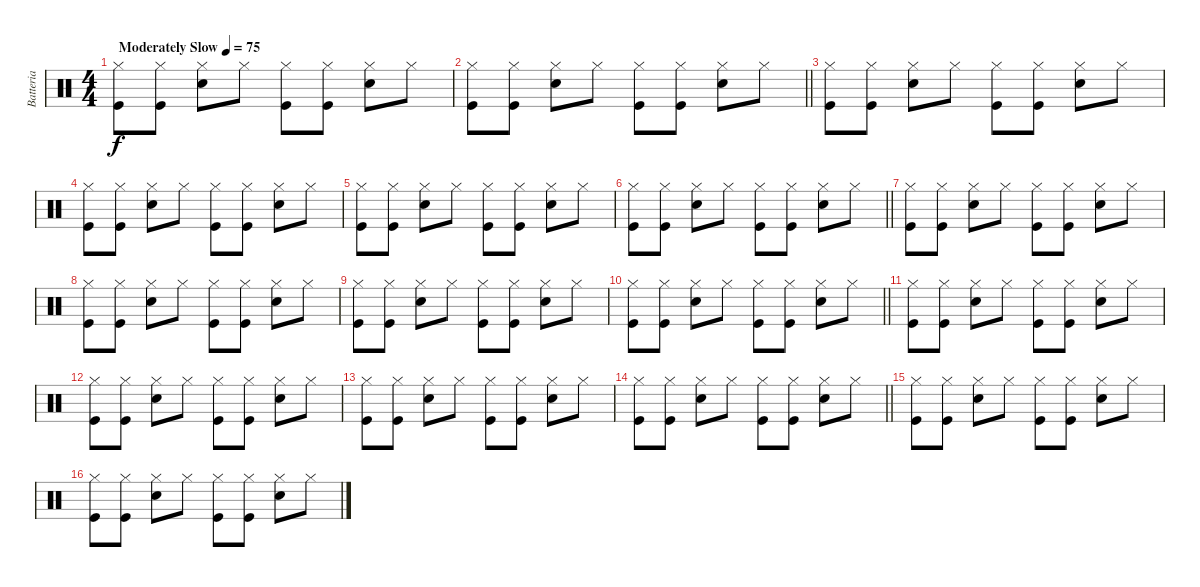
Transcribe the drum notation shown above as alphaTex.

\track ("Batteria" "Batteria") {instrument percussion}
\staff {score}
\articulation defaults
\ts (4 4)
\tempo (75 "Moderately Slow")
\clef neutral
\ks c
("Hi-Hat (closed)" "Kick (hit)").8{dy f} ("Hi-Hat (closed)" "Kick (hit)").8 ("Hi-Hat (closed)" "Snare (hit) 2").8 "Hi-Hat (closed)".8 ("Hi-Hat (closed)" "Kick (hit)").8 ("Hi-Hat (closed)" "Kick (hit)").8 ("Hi-Hat (closed)" "Snare (hit) 2").8 "Hi-Hat (closed)".8 |
\barLineRight lightlight
("Hi-Hat (closed)" "Kick (hit)").8 ("Hi-Hat (closed)" "Kick (hit)").8 ("Hi-Hat (closed)" "Snare (hit) 2").8 "Hi-Hat (closed)".8 ("Hi-Hat (closed)" "Kick (hit)").8 ("Hi-Hat (closed)" "Kick (hit)").8 ("Hi-Hat (closed)" "Snare (hit) 2").8 "Hi-Hat (closed)".8 |
("Hi-Hat (closed)" "Kick (hit)").8 ("Hi-Hat (closed)" "Kick (hit)").8 ("Hi-Hat (closed)" "Snare (hit) 2").8 "Hi-Hat (closed)".8 ("Hi-Hat (closed)" "Kick (hit)").8 ("Hi-Hat (closed)" "Kick (hit)").8 ("Hi-Hat (closed)" "Snare (hit) 2").8 "Hi-Hat (closed)".8 |
("Hi-Hat (closed)" "Kick (hit)").8 ("Hi-Hat (closed)" "Kick (hit)").8 ("Hi-Hat (closed)" "Snare (hit) 2").8 "Hi-Hat (closed)".8 ("Hi-Hat (closed)" "Kick (hit)").8 ("Hi-Hat (closed)" "Kick (hit)").8 ("Hi-Hat (closed)" "Snare (hit) 2").8 "Hi-Hat (closed)".8 |
("Hi-Hat (closed)" "Kick (hit)").8 ("Hi-Hat (closed)" "Kick (hit)").8 ("Hi-Hat (closed)" "Snare (hit) 2").8 "Hi-Hat (closed)".8 ("Hi-Hat (closed)" "Kick (hit)").8 ("Hi-Hat (closed)" "Kick (hit)").8 ("Hi-Hat (closed)" "Snare (hit) 2").8 "Hi-Hat (closed)".8 |
\barLineRight lightlight
("Hi-Hat (closed)" "Kick (hit)").8 ("Hi-Hat (closed)" "Kick (hit)").8 ("Hi-Hat (closed)" "Snare (hit) 2").8 "Hi-Hat (closed)".8 ("Hi-Hat (closed)" "Kick (hit)").8 ("Hi-Hat (closed)" "Kick (hit)").8 ("Hi-Hat (closed)" "Snare (hit) 2").8 "Hi-Hat (closed)".8 |
("Hi-Hat (closed)" "Kick (hit)").8 ("Hi-Hat (closed)" "Kick (hit)").8 ("Hi-Hat (closed)" "Snare (hit) 2").8 "Hi-Hat (closed)".8 ("Hi-Hat (closed)" "Kick (hit)").8 ("Hi-Hat (closed)" "Kick (hit)").8 ("Hi-Hat (closed)" "Snare (hit) 2").8 "Hi-Hat (closed)".8 |
("Hi-Hat (closed)" "Kick (hit)").8 ("Hi-Hat (closed)" "Kick (hit)").8 ("Hi-Hat (closed)" "Snare (hit) 2").8 "Hi-Hat (closed)".8 ("Hi-Hat (closed)" "Kick (hit)").8 ("Hi-Hat (closed)" "Kick (hit)").8 ("Hi-Hat (closed)" "Snare (hit) 2").8 "Hi-Hat (closed)".8 |
("Hi-Hat (closed)" "Kick (hit)").8 ("Hi-Hat (closed)" "Kick (hit)").8 ("Hi-Hat (closed)" "Snare (hit) 2").8 "Hi-Hat (closed)".8 ("Hi-Hat (closed)" "Kick (hit)").8 ("Hi-Hat (closed)" "Kick (hit)").8 ("Hi-Hat (closed)" "Snare (hit) 2").8 "Hi-Hat (closed)".8 |
\barLineRight lightlight
("Hi-Hat (closed)" "Kick (hit)").8 ("Hi-Hat (closed)" "Kick (hit)").8 ("Hi-Hat (closed)" "Snare (hit) 2").8 "Hi-Hat (closed)".8 ("Hi-Hat (closed)" "Kick (hit)").8 ("Hi-Hat (closed)" "Kick (hit)").8 ("Hi-Hat (closed)" "Snare (hit) 2").8 "Hi-Hat (closed)".8 |
("Hi-Hat (closed)" "Kick (hit)").8 ("Hi-Hat (closed)" "Kick (hit)").8 ("Hi-Hat (closed)" "Snare (hit) 2").8 "Hi-Hat (closed)".8 ("Hi-Hat (closed)" "Kick (hit)").8 ("Hi-Hat (closed)" "Kick (hit)").8 ("Hi-Hat (closed)" "Snare (hit) 2").8 "Hi-Hat (closed)".8 |
("Hi-Hat (closed)" "Kick (hit)").8 ("Hi-Hat (closed)" "Kick (hit)").8 ("Hi-Hat (closed)" "Snare (hit) 2").8 "Hi-Hat (closed)".8 ("Hi-Hat (closed)" "Kick (hit)").8 ("Hi-Hat (closed)" "Kick (hit)").8 ("Hi-Hat (closed)" "Snare (hit) 2").8 "Hi-Hat (closed)".8 |
("Hi-Hat (closed)" "Kick (hit)").8 ("Hi-Hat (closed)" "Kick (hit)").8 ("Hi-Hat (closed)" "Snare (hit) 2").8 "Hi-Hat (closed)".8 ("Hi-Hat (closed)" "Kick (hit)").8 ("Hi-Hat (closed)" "Kick (hit)").8 ("Hi-Hat (closed)" "Snare (hit) 2").8 "Hi-Hat (closed)".8 |
\barLineRight lightlight
("Hi-Hat (closed)" "Kick (hit)").8 ("Hi-Hat (closed)" "Kick (hit)").8 ("Hi-Hat (closed)" "Snare (hit) 2").8 "Hi-Hat (closed)".8 ("Hi-Hat (closed)" "Kick (hit)").8 ("Hi-Hat (closed)" "Kick (hit)").8 ("Hi-Hat (closed)" "Snare (hit) 2").8 "Hi-Hat (closed)".8 |
("Hi-Hat (closed)" "Kick (hit)").8 ("Hi-Hat (closed)" "Kick (hit)").8 ("Hi-Hat (closed)" "Snare (hit) 2").8 "Hi-Hat (closed)".8 ("Hi-Hat (closed)" "Kick (hit)").8 ("Hi-Hat (closed)" "Kick (hit)").8 ("Hi-Hat (closed)" "Snare (hit) 2").8 "Hi-Hat (closed)".8 |
("Hi-Hat (closed)" "Kick (hit)").8 ("Hi-Hat (closed)" "Kick (hit)").8 ("Hi-Hat (closed)" "Snare (hit) 2").8 "Hi-Hat (closed)".8 ("Hi-Hat (closed)" "Kick (hit)").8 ("Hi-Hat (closed)" "Kick (hit)").8 ("Hi-Hat (closed)" "Snare (hit) 2").8 "Hi-Hat (closed)".8
